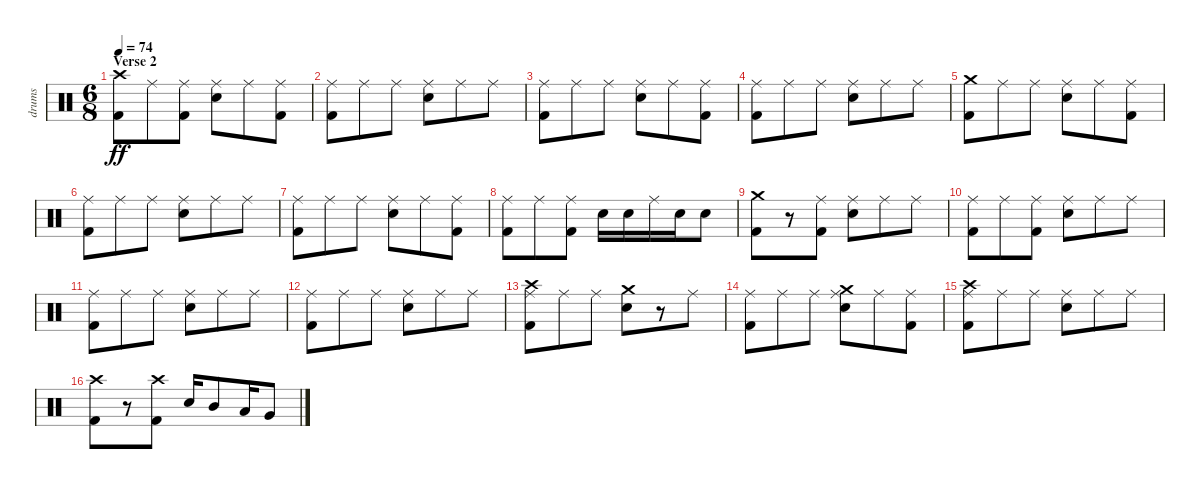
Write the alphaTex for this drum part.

\track ("drums" "drums") {instrument percussion}
\staff {score}
\articulation defaults
\ts (6 8)
\section ("" "Verse 2")
\tempo 74
\clef neutral
\ks c
("Crash high (hit)" "Kick (hit) 2").8{dy ff} "Ride (middle)".8 ("Ride (middle)" "Kick (hit) 2").8 ("Ride (middle)" "Snare (hit) 2").8 "Ride (middle)".8 ("Ride (middle)" "Kick (hit) 2").8 |
("Ride (middle)" "Kick (hit) 2").8 "Ride (middle)".8 "Ride (middle)".8 ("Ride (middle)" "Snare (hit) 2").8 "Ride (middle)".8 "Ride (middle)".8 |
("Ride (middle)" "Kick (hit) 2").8 "Ride (middle)".8 "Ride (middle)".8 ("Ride (middle)" "Snare (hit) 2").8 "Ride (middle)".8 ("Ride (middle)" "Kick (hit) 2").8 |
("Ride (middle)" "Kick (hit) 2").8 "Ride (middle)".8 "Ride (middle)".8 ("Ride (middle)" "Snare (hit) 2").8 "Ride (middle)".8 "Ride (middle)".8 |
("Crash medium (hit)" "Kick (hit) 2").8 "Ride (middle)".8 "Ride (middle)".8 ("Ride (middle)" "Snare (hit) 2").8 "Ride (middle)".8 ("Ride (middle)" "Kick (hit) 2").8 |
("Ride (middle)" "Kick (hit) 2").8 "Ride (middle)".8 "Ride (middle)".8 ("Ride (middle)" "Snare (hit) 2").8 "Ride (middle)".8 "Ride (middle)".8 |
("Ride (middle)" "Kick (hit) 2").8 "Ride (middle)".8 "Ride (middle)".8 ("Ride (middle)" "Snare (hit) 2").8 "Ride (middle)".8 ("Ride (middle)" "Kick (hit) 2").8 |
("Ride (middle)" "Kick (hit) 2").8 "Ride (middle)".8 ("Ride (middle)" "Kick (hit) 2").8 "Snare (hit) 2".16 "Snare (hit) 2".16 "Ride (middle)".16 "Snare (hit) 2".16 "Snare (hit) 2".8 |
("Crash medium (hit)" "Kick (hit) 2").8 r.8 ("Ride (middle)" "Kick (hit) 2").8 ("Ride (middle)" "Snare (hit) 2").8 "Ride (middle)".8 "Ride (middle)".8 |
("Ride (middle)" "Kick (hit) 2").8 "Ride (middle)".8 ("Ride (middle)" "Kick (hit) 2").8 ("Ride (middle)" "Snare (hit) 2").8 "Ride (middle)".8 "Ride (middle)".8 |
("Ride (middle)" "Kick (hit) 2").8 "Ride (middle)".8 "Ride (middle)".8 ("Ride (middle)" "Snare (hit) 2").8 "Ride (middle)".8 "Ride (middle)".8 |
("Ride (middle)" "Kick (hit) 2").8 "Ride (middle)".8 "Ride (middle)".8 ("Ride (middle)" "Snare (hit) 2").8 "Ride (middle)".8 "Ride (middle)".8 |
("Crash high (hit)" "Ride (middle)" "Kick (hit) 2").8 "Ride (middle)".8 "Ride (middle)".8 ("Crash medium (hit)" "Snare (hit) 2").8 r.8 "Ride (middle)".8 |
("Ride (middle)" "Kick (hit) 2").8 "Ride (middle)".8 "Ride (middle)".8 ("Crash medium (hit)" "Ride (middle)" "Snare (hit) 2").8 "Ride (middle)".8 ("Ride (middle)" "Kick (hit) 2").8 |
("Crash high (hit)" "Ride (middle)" "Kick (hit) 2").8 "Ride (middle)".8 "Ride (middle)".8 ("Ride (middle)" "Snare (hit) 2").8 "Ride (middle)".8 "Ride (middle)".8 |
("Crash high (hit)" "Kick (hit) 2").8 r.8 ("Crash high (hit)" "Kick (hit) 2").8 "Snare (hit) 2".16 "Mid Tom (hit)".8 "Low Tom (hit)".16 "Very Low Tom (hit)".8
